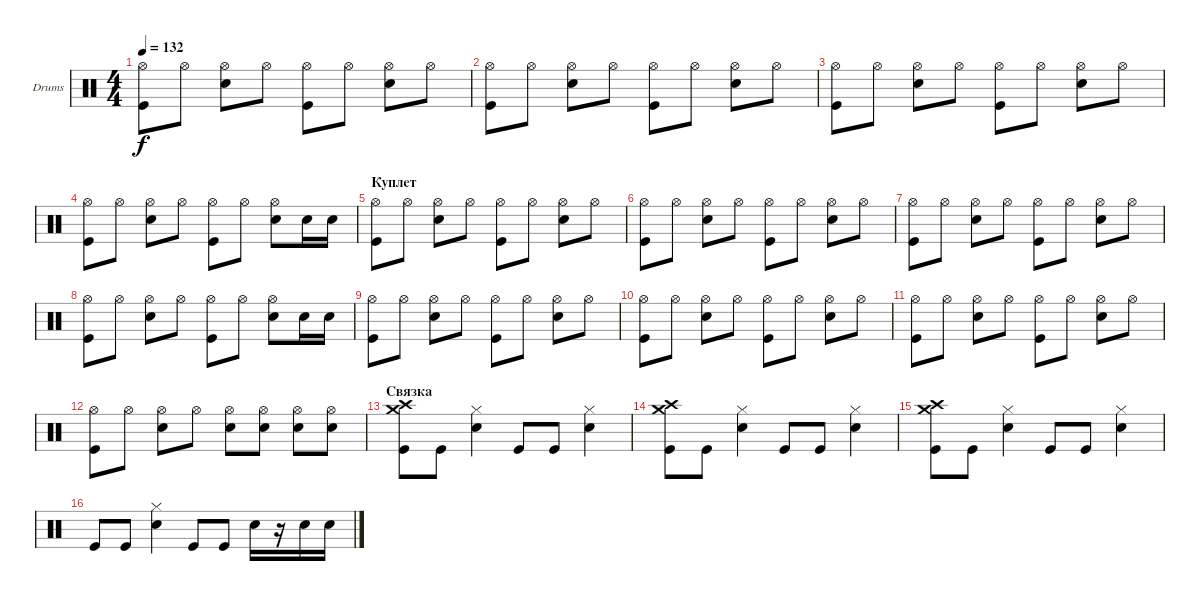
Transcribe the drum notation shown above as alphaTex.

\bracketExtendMode groupsimilarinstruments
\firstSystemTrackNameOrientation horizontal
\otherSystemsTrackNameOrientation horizontal
\track ("Александр Львов" "Drums") {instrument percussion}
\staff {score}
\articulation defaults
\ts (4 4)
\tempo 132
\clef neutral
\ks c
("Hi-Hat (open)" "Kick (hit)").8{dy f} "Hi-Hat (open)".8 ("Hi-Hat (open)" "Snare (hit) 2").8 "Hi-Hat (open)".8 ("Hi-Hat (open)" "Kick (hit)").8 "Hi-Hat (open)".8 ("Hi-Hat (open)" "Snare (hit) 2").8 "Hi-Hat (open)".8 |
("Hi-Hat (open)" "Kick (hit)").8 "Hi-Hat (open)".8 ("Hi-Hat (open)" "Snare (hit) 2").8 "Hi-Hat (open)".8 ("Hi-Hat (open)" "Kick (hit)").8 "Hi-Hat (open)".8 ("Hi-Hat (open)" "Snare (hit) 2").8 "Hi-Hat (open)".8 |
("Hi-Hat (open)" "Kick (hit)").8 "Hi-Hat (open)".8 ("Hi-Hat (open)" "Snare (hit) 2").8 "Hi-Hat (open)".8 ("Hi-Hat (open)" "Kick (hit)").8 "Hi-Hat (open)".8 ("Hi-Hat (open)" "Snare (hit) 2").8 "Hi-Hat (open)".8 |
("Hi-Hat (open)" "Kick (hit)").8 "Hi-Hat (open)".8 ("Hi-Hat (open)" "Snare (hit) 2").8 "Hi-Hat (open)".8 ("Hi-Hat (open)" "Kick (hit)").8 "Hi-Hat (open)".8 ("Hi-Hat (open)" "Snare (hit) 2").8 "Snare (hit) 2".16 "Snare (hit) 2".16 |
\section ("" "Куплет")
("Hi-Hat (open)" "Kick (hit)").8 "Hi-Hat (open)".8 ("Hi-Hat (open)" "Snare (hit) 2").8 "Hi-Hat (open)".8 ("Hi-Hat (open)" "Kick (hit)").8 "Hi-Hat (open)".8 ("Hi-Hat (open)" "Snare (hit) 2").8 "Hi-Hat (open)".8 |
("Hi-Hat (open)" "Kick (hit)").8 "Hi-Hat (open)".8 ("Hi-Hat (open)" "Snare (hit) 2").8 "Hi-Hat (open)".8 ("Hi-Hat (open)" "Kick (hit)").8 "Hi-Hat (open)".8 ("Hi-Hat (open)" "Snare (hit) 2").8 "Hi-Hat (open)".8 |
("Hi-Hat (open)" "Kick (hit)").8 "Hi-Hat (open)".8 ("Hi-Hat (open)" "Snare (hit) 2").8 "Hi-Hat (open)".8 ("Hi-Hat (open)" "Kick (hit)").8 "Hi-Hat (open)".8 ("Hi-Hat (open)" "Snare (hit) 2").8 "Hi-Hat (open)".8 |
("Hi-Hat (open)" "Kick (hit)").8 "Hi-Hat (open)".8 ("Hi-Hat (open)" "Snare (hit) 2").8 "Hi-Hat (open)".8 ("Hi-Hat (open)" "Kick (hit)").8 "Hi-Hat (open)".8 ("Hi-Hat (open)" "Snare (hit) 2").8 "Snare (hit) 2".16 "Snare (hit) 2".16 |
("Hi-Hat (open)" "Kick (hit)").8 "Hi-Hat (open)".8 ("Hi-Hat (open)" "Snare (hit) 2").8 "Hi-Hat (open)".8 ("Hi-Hat (open)" "Kick (hit)").8 "Hi-Hat (open)".8 ("Hi-Hat (open)" "Snare (hit) 2").8 "Hi-Hat (open)".8 |
("Hi-Hat (open)" "Kick (hit)").8 "Hi-Hat (open)".8 ("Hi-Hat (open)" "Snare (hit) 2").8 "Hi-Hat (open)".8 ("Hi-Hat (open)" "Kick (hit)").8 "Hi-Hat (open)".8 ("Hi-Hat (open)" "Snare (hit) 2").8 "Hi-Hat (open)".8 |
("Hi-Hat (open)" "Kick (hit)").8 "Hi-Hat (open)".8 ("Hi-Hat (open)" "Snare (hit) 2").8 "Hi-Hat (open)".8 ("Hi-Hat (open)" "Kick (hit)").8 "Hi-Hat (open)".8 ("Hi-Hat (open)" "Snare (hit) 2").8 "Hi-Hat (open)".8 |
("Hi-Hat (open)" "Kick (hit)").8 "Hi-Hat (open)".8 ("Hi-Hat (open)" "Snare (hit) 2").8 "Hi-Hat (open)".8 ("Hi-Hat (open)" "Snare (hit) 2").8 ("Hi-Hat (open)" "Snare (hit) 2").8 ("Hi-Hat (open)" "Snare (hit) 2").8 ("Hi-Hat (open)" "Snare (hit) 2").8 |
\section ("" "Связка")
("Kick (hit)" "Crash medium (hit)" "Crash high (hit)").8 "Kick (hit)".8 ("Snare (hit) 2" "Hi-Hat (closed)").4 "Kick (hit)".8 "Kick (hit)".8 ("Snare (hit) 2" "Hi-Hat (closed)").4 |
("Kick (hit)" "Crash medium (hit)" "Crash high (hit)").8 "Kick (hit)".8 ("Snare (hit) 2" "Hi-Hat (closed)").4 "Kick (hit)".8 "Kick (hit)".8 ("Snare (hit) 2" "Hi-Hat (closed)").4 |
("Kick (hit)" "Crash medium (hit)" "Crash high (hit)").8 "Kick (hit)".8 ("Snare (hit) 2" "Hi-Hat (closed)").4 "Kick (hit)".8 "Kick (hit)".8 ("Snare (hit) 2" "Hi-Hat (closed)").4 |
"Kick (hit)".8 "Kick (hit)".8 ("Snare (hit) 2" "Hi-Hat (closed)").4 "Kick (hit)".8 "Kick (hit)".8 "Snare (hit) 2".16 r.16 "Snare (hit) 2".16 "Snare (hit) 2".16
